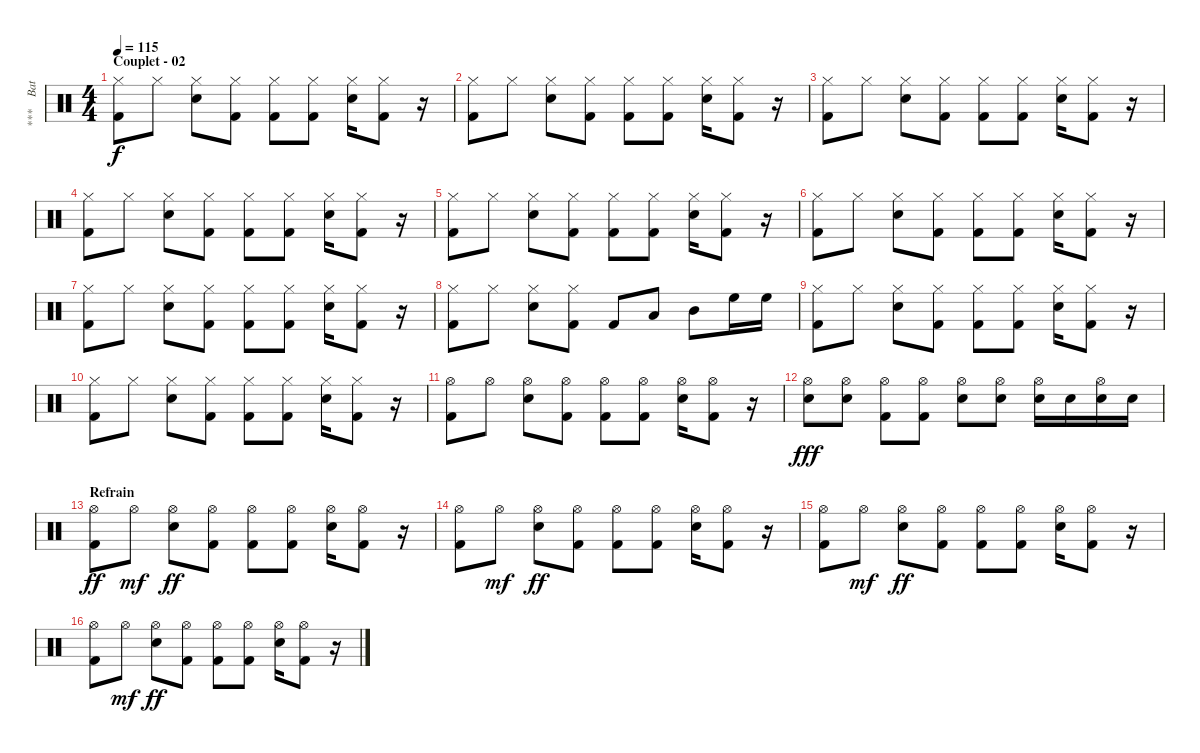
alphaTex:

\track ("***    Batterie     ***" "***    Bat") {instrument percussion}
\staff {score}
\articulation defaults
\ts (4 4)
\section ("" "Couplet - 02")
\tempo 115
\clef neutral
\ks c
("Hi-Hat (closed)" "Kick (hit) 2").8{dy f} "Hi-Hat (closed)".8 ("Hi-Hat (closed)" "Snare (hit) 2").8 ("Hi-Hat (closed)" "Kick (hit) 2").8 ("Hi-Hat (closed)" "Kick (hit) 2").8 ("Hi-Hat (closed)" "Kick (hit) 2").8 ("Hi-Hat (closed)" "Snare (hit) 2").16 ("Hi-Hat (closed)" "Kick (hit) 2").8 r.16 |
("Hi-Hat (closed)" "Kick (hit) 2").8 "Hi-Hat (closed)".8 ("Hi-Hat (closed)" "Snare (hit) 2").8 ("Hi-Hat (closed)" "Kick (hit) 2").8 ("Hi-Hat (closed)" "Kick (hit) 2").8 ("Hi-Hat (closed)" "Kick (hit) 2").8 ("Hi-Hat (closed)" "Snare (hit) 2").16 ("Hi-Hat (closed)" "Kick (hit) 2").8 r.16 |
("Hi-Hat (closed)" "Kick (hit) 2").8 "Hi-Hat (closed)".8 ("Hi-Hat (closed)" "Snare (hit) 2").8 ("Hi-Hat (closed)" "Kick (hit) 2").8 ("Hi-Hat (closed)" "Kick (hit) 2").8 ("Hi-Hat (closed)" "Kick (hit) 2").8 ("Hi-Hat (closed)" "Snare (hit) 2").16 ("Hi-Hat (closed)" "Kick (hit) 2").8 r.16 |
("Hi-Hat (closed)" "Kick (hit) 2").8 "Hi-Hat (closed)".8 ("Hi-Hat (closed)" "Snare (hit) 2").8 ("Hi-Hat (closed)" "Kick (hit) 2").8 ("Hi-Hat (closed)" "Kick (hit) 2").8 ("Hi-Hat (closed)" "Kick (hit) 2").8 ("Hi-Hat (closed)" "Snare (hit) 2").16 ("Hi-Hat (closed)" "Kick (hit) 2").8 r.16 |
("Hi-Hat (closed)" "Kick (hit) 2").8 "Hi-Hat (closed)".8 ("Hi-Hat (closed)" "Snare (hit) 2").8 ("Hi-Hat (closed)" "Kick (hit) 2").8 ("Hi-Hat (closed)" "Kick (hit) 2").8 ("Hi-Hat (closed)" "Kick (hit) 2").8 ("Hi-Hat (closed)" "Snare (hit) 2").16 ("Hi-Hat (closed)" "Kick (hit) 2").8 r.16 |
("Hi-Hat (closed)" "Kick (hit) 2").8 "Hi-Hat (closed)".8 ("Hi-Hat (closed)" "Snare (hit) 2").8 ("Hi-Hat (closed)" "Kick (hit) 2").8 ("Hi-Hat (closed)" "Kick (hit) 2").8 ("Hi-Hat (closed)" "Kick (hit) 2").8 ("Hi-Hat (closed)" "Snare (hit) 2").16 ("Hi-Hat (closed)" "Kick (hit) 2").8 r.16 |
("Hi-Hat (closed)" "Kick (hit) 2").8 "Hi-Hat (closed)".8 ("Hi-Hat (closed)" "Snare (hit) 2").8 ("Hi-Hat (closed)" "Kick (hit) 2").8 ("Hi-Hat (closed)" "Kick (hit) 2").8 ("Hi-Hat (closed)" "Kick (hit) 2").8 ("Hi-Hat (closed)" "Snare (hit) 2").16 ("Hi-Hat (closed)" "Kick (hit) 2").8 r.16 |
("Hi-Hat (closed)" "Kick (hit) 2").8 "Hi-Hat (closed)".8 ("Hi-Hat (closed)" "Snare (hit) 2").8 ("Hi-Hat (closed)" "Kick (hit) 2").8 "Kick (hit) 2".8 "Low Tom (hit)".8 "Mid Tom (hit)".8 "High Floor Tom (hit)".16 "High Floor Tom (hit)".16 |
("Hi-Hat (closed)" "Kick (hit) 2").8 "Hi-Hat (closed)".8 ("Hi-Hat (closed)" "Snare (hit) 2").8 ("Hi-Hat (closed)" "Kick (hit) 2").8 ("Hi-Hat (closed)" "Kick (hit) 2").8 ("Hi-Hat (closed)" "Kick (hit) 2").8 ("Hi-Hat (closed)" "Snare (hit) 2").16 ("Hi-Hat (closed)" "Kick (hit) 2").8 r.16 |
("Hi-Hat (closed)" "Kick (hit) 2").8 "Hi-Hat (closed)".8 ("Hi-Hat (closed)" "Snare (hit) 2").8 ("Hi-Hat (closed)" "Kick (hit) 2").8 ("Hi-Hat (closed)" "Kick (hit) 2").8 ("Hi-Hat (closed)" "Kick (hit) 2").8 ("Hi-Hat (closed)" "Snare (hit) 2").16 ("Hi-Hat (closed)" "Kick (hit) 2").8 r.16 |
("Hi-Hat (open)" "Kick (hit) 2").8 "Hi-Hat (open)".8 ("Hi-Hat (open)" "Snare (hit) 2").8 ("Hi-Hat (open)" "Kick (hit) 2").8 ("Hi-Hat (open)" "Kick (hit) 2").8 ("Hi-Hat (open)" "Kick (hit) 2").8 ("Hi-Hat (open)" "Snare (hit) 2").16 ("Hi-Hat (open)" "Kick (hit) 2").8 r.16 |
("Hi-Hat (open)" "Snare (hit) 2").8{dy fff} ("Hi-Hat (open)" "Snare (hit) 2").8 ("Hi-Hat (open)" "Kick (hit) 2").8 ("Hi-Hat (open)" "Kick (hit) 2").8 ("Hi-Hat (open)" "Snare (hit) 2").8 ("Hi-Hat (open)" "Snare (hit) 2").8 ("Hi-Hat (open)" "Snare (hit) 2").16 "Snare (hit) 2".16 ("Hi-Hat (open)" "Snare (hit) 2").16 "Snare (hit) 2".16 |
\section ("" "Refrain")
("Hi-Hat (open)" "Kick (hit) 2").8{dy ff} "Hi-Hat (open)".8{dy mf} ("Hi-Hat (open)" "Snare (hit) 2").8{dy ff} ("Hi-Hat (open)" "Kick (hit) 2").8 ("Hi-Hat (open)" "Kick (hit) 2").8 ("Hi-Hat (open)" "Kick (hit) 2").8 ("Hi-Hat (open)" "Snare (hit) 2").16 ("Hi-Hat (open)" "Kick (hit) 2").8 r.16 |
("Hi-Hat (open)" "Kick (hit) 2").8 "Hi-Hat (open)".8{dy mf} ("Hi-Hat (open)" "Snare (hit) 2").8{dy ff} ("Hi-Hat (open)" "Kick (hit) 2").8 ("Hi-Hat (open)" "Kick (hit) 2").8 ("Hi-Hat (open)" "Kick (hit) 2").8 ("Hi-Hat (open)" "Snare (hit) 2").16 ("Hi-Hat (open)" "Kick (hit) 2").8 r.16 |
("Hi-Hat (open)" "Kick (hit) 2").8 "Hi-Hat (open)".8{dy mf} ("Hi-Hat (open)" "Snare (hit) 2").8{dy ff} ("Hi-Hat (open)" "Kick (hit) 2").8 ("Hi-Hat (open)" "Kick (hit) 2").8 ("Hi-Hat (open)" "Kick (hit) 2").8 ("Hi-Hat (open)" "Snare (hit) 2").16 ("Hi-Hat (open)" "Kick (hit) 2").8 r.16 |
("Hi-Hat (open)" "Kick (hit) 2").8 "Hi-Hat (open)".8{dy mf} ("Hi-Hat (open)" "Snare (hit) 2").8{dy ff} ("Hi-Hat (open)" "Kick (hit) 2").8 ("Hi-Hat (open)" "Kick (hit) 2").8 ("Hi-Hat (open)" "Kick (hit) 2").8 ("Hi-Hat (open)" "Snare (hit) 2").16 ("Hi-Hat (open)" "Kick (hit) 2").8 r.16
